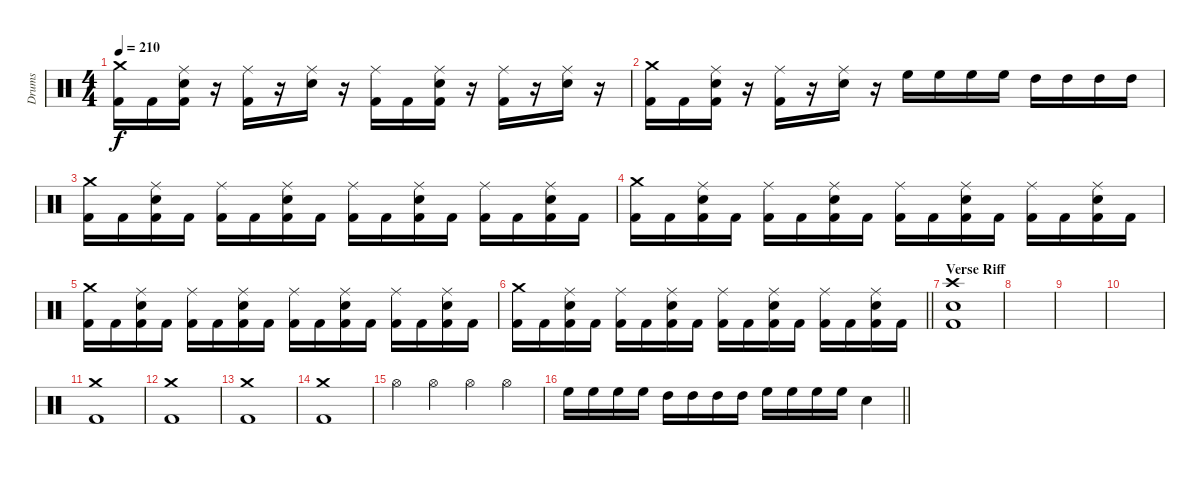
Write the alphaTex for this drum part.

\track ("Drums" "Drums") {instrument percussion}
\staff {score}
\articulation defaults
\ts (4 4)
\tempo 210
\clef neutral
\ks c
("Crash medium (hit)" "Kick (hit) 2").16{dy f} "Kick (hit) 2".16 ("Ride (middle)" "Electric Snare (hit)" "Kick (hit) 2").16 r.16 ("Ride (middle)" "Kick (hit) 2").16 r.16 ("Ride (middle)" "Electric Snare (hit)").16 r.16 ("Ride (middle)" "Kick (hit) 2").16 "Kick (hit) 2".16 ("Ride (middle)" "Electric Snare (hit)" "Kick (hit) 2").16 r.16 ("Ride (middle)" "Kick (hit) 2").16 r.16 ("Ride (middle)" "Electric Snare (hit)").16 r.16 |
("Crash medium (hit)" "Kick (hit) 2").16 "Kick (hit) 2".16 ("Ride (middle)" "Electric Snare (hit)" "Kick (hit) 2").16 r.16 ("Ride (middle)" "Kick (hit) 2").16 r.16 ("Ride (middle)" "Electric Snare (hit)").16 r.16 "High Floor Tom (hit)".16 "High Floor Tom (hit)".16 "High Floor Tom (hit)".16 "High Floor Tom (hit)".16 "High Tom (hit)".16 "High Tom (hit)".16 "High Tom (hit)".16 "High Tom (hit)".16 |
("Crash medium (hit)" "Kick (hit) 2").16 "Kick (hit) 2".16 ("Ride (middle)" "Electric Snare (hit)" "Kick (hit) 2").16 "Kick (hit) 2".16 ("Ride (middle)" "Kick (hit) 2").16 "Kick (hit) 2".16 ("Ride (middle)" "Electric Snare (hit)" "Kick (hit) 2").16 "Kick (hit) 2".16 ("Ride (middle)" "Kick (hit) 2").16 "Kick (hit) 2".16 ("Ride (middle)" "Electric Snare (hit)" "Kick (hit) 2").16 "Kick (hit) 2".16 ("Ride (middle)" "Kick (hit) 2").16 "Kick (hit) 2".16 ("Ride (middle)" "Electric Snare (hit)" "Kick (hit) 2").16 "Kick (hit) 2".16 |
("Crash medium (hit)" "Kick (hit) 2").16 "Kick (hit) 2".16 ("Ride (middle)" "Electric Snare (hit)" "Kick (hit) 2").16 "Kick (hit) 2".16 ("Ride (middle)" "Kick (hit) 2").16 "Kick (hit) 2".16 ("Ride (middle)" "Electric Snare (hit)" "Kick (hit) 2").16 "Kick (hit) 2".16 ("Ride (middle)" "Kick (hit) 2").16 "Kick (hit) 2".16 ("Ride (middle)" "Electric Snare (hit)" "Kick (hit) 2").16 "Kick (hit) 2".16 ("Ride (middle)" "Kick (hit) 2").16 "Kick (hit) 2".16 ("Ride (middle)" "Electric Snare (hit)" "Kick (hit) 2").16 "Kick (hit) 2".16 |
("Crash medium (hit)" "Kick (hit) 2").16 "Kick (hit) 2".16 ("Ride (middle)" "Electric Snare (hit)" "Kick (hit) 2").16 "Kick (hit) 2".16 ("Ride (middle)" "Kick (hit) 2").16 "Kick (hit) 2".16 ("Ride (middle)" "Electric Snare (hit)" "Kick (hit) 2").16 "Kick (hit) 2".16 ("Ride (middle)" "Kick (hit) 2").16 "Kick (hit) 2".16 ("Ride (middle)" "Electric Snare (hit)" "Kick (hit) 2").16 "Kick (hit) 2".16 ("Ride (middle)" "Kick (hit) 2").16 "Kick (hit) 2".16 ("Ride (middle)" "Electric Snare (hit)" "Kick (hit) 2").16 "Kick (hit) 2".16 |
\barLineRight lightlight
("Crash medium (hit)" "Kick (hit) 2").16 "Kick (hit) 2".16 ("Ride (middle)" "Electric Snare (hit)" "Kick (hit) 2").16 "Kick (hit) 2".16 ("Ride (middle)" "Kick (hit) 2").16 "Kick (hit) 2".16 ("Ride (middle)" "Electric Snare (hit)" "Kick (hit) 2").16 "Kick (hit) 2".16 ("Ride (middle)" "Kick (hit) 2").16 "Kick (hit) 2".16 ("Ride (middle)" "Electric Snare (hit)" "Kick (hit) 2").16 "Kick (hit) 2".16 ("Ride (middle)" "Kick (hit) 2").16 "Kick (hit) 2".16 ("Ride (middle)" "Electric Snare (hit)" "Kick (hit) 2").16 "Kick (hit) 2".16 |
\section ("" "Verse Riff")
("Crash high (hit)" "Electric Snare (hit)" "Kick (hit) 2").1 |
|
|
|
("Crash medium (hit)" "Kick (hit) 2").1 |
("Crash medium (hit)" "Kick (hit) 2").1 |
("Crash medium (hit)" "Kick (hit) 2").1 |
("Crash medium (hit)" "Kick (hit) 2").1 |
"Hi-Hat (open)".4 "Hi-Hat (open)".4 "Hi-Hat (open)".4 "Hi-Hat (open)".4 |
\barLineRight lightlight "High Floor Tom (hit)".16 "High Floor Tom (hit)".16 "High Floor Tom (hit)".16 "High Floor Tom (hit)".16 "High Tom (hit)".16 "High Tom (hit)".16 "High Tom (hit)".16 "High Tom (hit)".16 "High Floor Tom (hit)".16 "High Floor Tom (hit)".16 "High Floor Tom (hit)".16 "High Floor Tom (hit)".16 "Electric Snare (hit)".4
